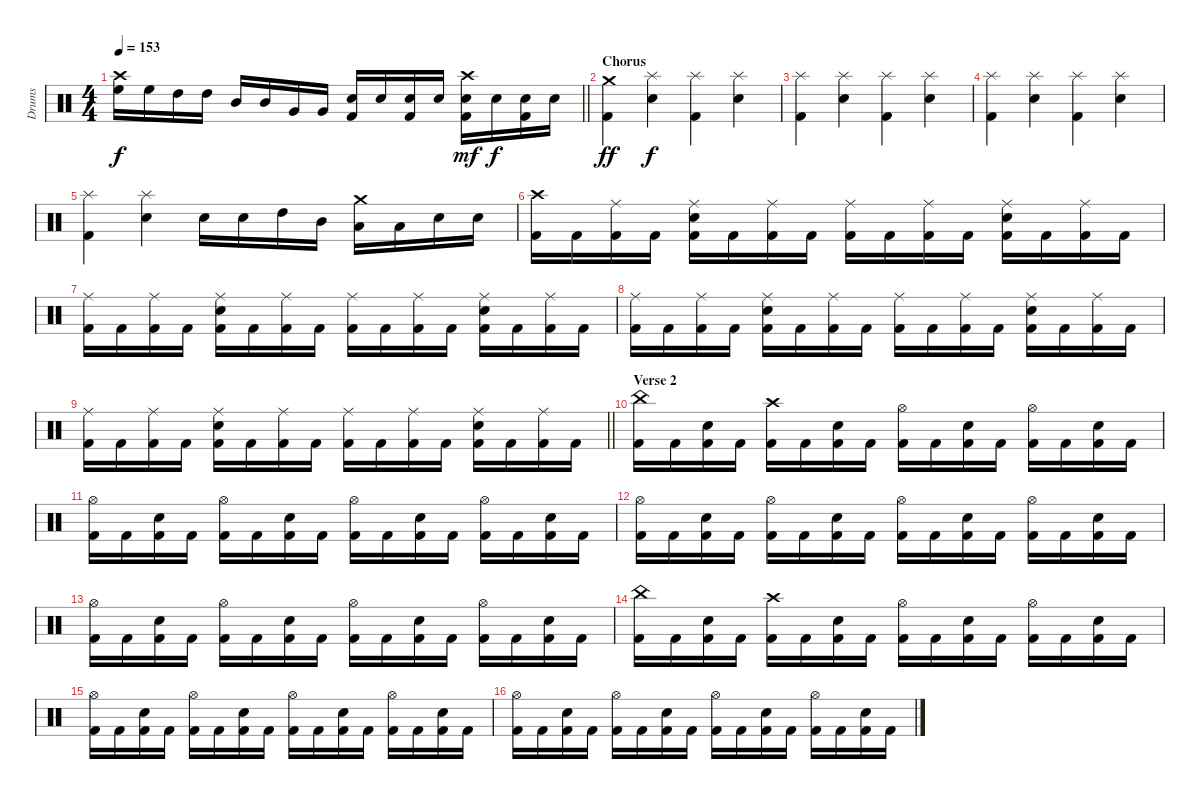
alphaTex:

\track ("Drums" "Drums") {instrument percussion}
\staff {score}
\articulation defaults
\ts (4 4)
\tempo 153
\clef neutral
\barLineRight lightlight
\ks c
("Crash high (hit)" "High Floor Tom (hit)").16{dy f} "High Floor Tom (hit)".16 "High Tom (hit)".16 "High Tom (hit)".16 "Mid Tom (hit)".16 "Mid Tom (hit)".16 "Very Low Tom (hit)".16 "Very Low Tom (hit)".16 ("Electric Snare (hit)" "Kick (hit) 2").16 "Electric Snare (hit)".16 ("Electric Snare (hit)" "Kick (hit) 2").16 "Electric Snare (hit)".16 ("Crash high (hit)" "Electric Snare (hit)" "Kick (hit) 2").16{dy mf} "Electric Snare (hit)".16{dy f} ("Electric Snare (hit)" "Kick (hit) 2").16 "Electric Snare (hit)".16 |
\section ("" "Chorus")
("Crash medium (hit)" "Kick (hit) 2").4{dy ff} ("Splash (hit)" "Electric Snare (hit)").4{dy f} ("Splash (hit)" "Kick (hit) 2").4 ("Splash (hit)" "Electric Snare (hit)").4 |
("Splash (hit)" "Kick (hit) 2").4 ("Splash (hit)" "Electric Snare (hit)").4 ("Splash (hit)" "Kick (hit) 2").4 ("Splash (hit)" "Electric Snare (hit)").4 |
("Splash (hit)" "Kick (hit) 2").4 ("Splash (hit)" "Electric Snare (hit)").4 ("Splash (hit)" "Kick (hit) 2").4 ("Splash (hit)" "Electric Snare (hit)").4 |
("Splash (hit)" "Kick (hit) 2").4 ("Splash (hit)" "Electric Snare (hit)").4 "Electric Snare (hit)".16 "Electric Snare (hit)".16 "High Tom (hit)".16 "Mid Tom (hit)".16 ("Crash medium (hit)" "Low Tom (hit)").16 "Low Floor Tom (hit)".16 "Electric Snare (hit)".16 "Electric Snare (hit)".16 |
("Crash high (hit)" "Kick (hit) 2").16 "Kick (hit) 2".16 ("Ride (middle)" "Kick (hit) 2").16 "Kick (hit) 2".16 ("Ride (middle)" "Electric Snare (hit)" "Kick (hit) 2").16 "Kick (hit) 2".16 ("Ride (middle)" "Kick (hit) 2").16 "Kick (hit) 2".16 ("Ride (middle)" "Kick (hit) 2").16 "Kick (hit) 2".16 ("Ride (middle)" "Kick (hit) 2").16 "Kick (hit) 2".16 ("Ride (middle)" "Electric Snare (hit)" "Kick (hit) 2").16 "Kick (hit) 2".16 ("Ride (middle)" "Kick (hit) 2").16 "Kick (hit) 2".16 |
("Ride (middle)" "Kick (hit) 2").16 "Kick (hit) 2".16 ("Ride (middle)" "Kick (hit) 2").16 "Kick (hit) 2".16 ("Ride (middle)" "Electric Snare (hit)" "Kick (hit) 2").16 "Kick (hit) 2".16 ("Ride (middle)" "Kick (hit) 2").16 "Kick (hit) 2".16 ("Ride (middle)" "Kick (hit) 2").16 "Kick (hit) 2".16 ("Ride (middle)" "Kick (hit) 2").16 "Kick (hit) 2".16 ("Ride (middle)" "Electric Snare (hit)" "Kick (hit) 2").16 "Kick (hit) 2".16 ("Ride (middle)" "Kick (hit) 2").16 "Kick (hit) 2".16 |
("Ride (middle)" "Kick (hit) 2").16 "Kick (hit) 2".16 ("Ride (middle)" "Kick (hit) 2").16 "Kick (hit) 2".16 ("Ride (middle)" "Electric Snare (hit)" "Kick (hit) 2").16 "Kick (hit) 2".16 ("Ride (middle)" "Kick (hit) 2").16 "Kick (hit) 2".16 ("Ride (middle)" "Kick (hit) 2").16 "Kick (hit) 2".16 ("Ride (middle)" "Kick (hit) 2").16 "Kick (hit) 2".16 ("Ride (middle)" "Electric Snare (hit)" "Kick (hit) 2").16 "Kick (hit) 2".16 ("Ride (middle)" "Kick (hit) 2").16 "Kick (hit) 2".16 |
\barLineRight lightlight
("Ride (middle)" "Kick (hit) 2").16 "Kick (hit) 2".16 ("Ride (middle)" "Kick (hit) 2").16 "Kick (hit) 2".16 ("Ride (middle)" "Electric Snare (hit)" "Kick (hit) 2").16 "Kick (hit) 2".16 ("Ride (middle)" "Kick (hit) 2").16 "Kick (hit) 2".16 ("Ride (middle)" "Kick (hit) 2").16 "Kick (hit) 2".16 ("Ride (middle)" "Kick (hit) 2").16 "Kick (hit) 2".16 ("Ride (middle)" "Electric Snare (hit)" "Kick (hit) 2").16 "Kick (hit) 2".16 ("Ride (middle)" "Kick (hit) 2").16 "Kick (hit) 2".16 |
\section ("" "Verse 2")
("China (hit)" "Kick (hit) 2").16{volume 13} "Kick (hit) 2".16 ("Electric Snare (hit)" "Kick (hit) 2").16 "Kick (hit) 2".16 ("Crash high (hit)" "Kick (hit) 2").16 "Kick (hit) 2".16 ("Electric Snare (hit)" "Kick (hit) 2").16 "Kick (hit) 2".16 ("Hi-Hat (open)" "Kick (hit) 2").16 "Kick (hit) 2".16 ("Electric Snare (hit)" "Kick (hit) 2").16 "Kick (hit) 2".16 ("Hi-Hat (open)" "Kick (hit) 2").16 "Kick (hit) 2".16 ("Electric Snare (hit)" "Kick (hit) 2").16 "Kick (hit) 2".16 |
("Hi-Hat (open)" "Kick (hit) 2").16 "Kick (hit) 2".16 ("Electric Snare (hit)" "Kick (hit) 2").16 "Kick (hit) 2".16 ("Hi-Hat (open)" "Kick (hit) 2").16 "Kick (hit) 2".16 ("Electric Snare (hit)" "Kick (hit) 2").16 "Kick (hit) 2".16 ("Hi-Hat (open)" "Kick (hit) 2").16 "Kick (hit) 2".16 ("Electric Snare (hit)" "Kick (hit) 2").16 "Kick (hit) 2".16 ("Hi-Hat (open)" "Kick (hit) 2").16 "Kick (hit) 2".16 ("Electric Snare (hit)" "Kick (hit) 2").16 "Kick (hit) 2".16 |
("Hi-Hat (open)" "Kick (hit) 2").16 "Kick (hit) 2".16 ("Electric Snare (hit)" "Kick (hit) 2").16 "Kick (hit) 2".16 ("Hi-Hat (open)" "Kick (hit) 2").16 "Kick (hit) 2".16 ("Electric Snare (hit)" "Kick (hit) 2").16 "Kick (hit) 2".16 ("Hi-Hat (open)" "Kick (hit) 2").16 "Kick (hit) 2".16 ("Electric Snare (hit)" "Kick (hit) 2").16 "Kick (hit) 2".16 ("Hi-Hat (open)" "Kick (hit) 2").16 "Kick (hit) 2".16 ("Electric Snare (hit)" "Kick (hit) 2").16 "Kick (hit) 2".16 |
("Hi-Hat (open)" "Kick (hit) 2").16 "Kick (hit) 2".16 ("Electric Snare (hit)" "Kick (hit) 2").16 "Kick (hit) 2".16 ("Hi-Hat (open)" "Kick (hit) 2").16 "Kick (hit) 2".16 ("Electric Snare (hit)" "Kick (hit) 2").16 "Kick (hit) 2".16 ("Hi-Hat (open)" "Kick (hit) 2").16 "Kick (hit) 2".16 ("Electric Snare (hit)" "Kick (hit) 2").16 "Kick (hit) 2".16 ("Hi-Hat (open)" "Kick (hit) 2").16 "Kick (hit) 2".16 ("Electric Snare (hit)" "Kick (hit) 2").16 "Kick (hit) 2".16 |
("China (hit)" "Kick (hit) 2").16 "Kick (hit) 2".16 ("Electric Snare (hit)" "Kick (hit) 2").16 "Kick (hit) 2".16 ("Crash high (hit)" "Kick (hit) 2").16 "Kick (hit) 2".16 ("Electric Snare (hit)" "Kick (hit) 2").16 "Kick (hit) 2".16 ("Hi-Hat (open)" "Kick (hit) 2").16 "Kick (hit) 2".16 ("Electric Snare (hit)" "Kick (hit) 2").16 "Kick (hit) 2".16 ("Hi-Hat (open)" "Kick (hit) 2").16 "Kick (hit) 2".16 ("Electric Snare (hit)" "Kick (hit) 2").16 "Kick (hit) 2".16 |
("Hi-Hat (open)" "Kick (hit) 2").16 "Kick (hit) 2".16 ("Electric Snare (hit)" "Kick (hit) 2").16 "Kick (hit) 2".16 ("Hi-Hat (open)" "Kick (hit) 2").16 "Kick (hit) 2".16 ("Electric Snare (hit)" "Kick (hit) 2").16 "Kick (hit) 2".16 ("Hi-Hat (open)" "Kick (hit) 2").16 "Kick (hit) 2".16 ("Electric Snare (hit)" "Kick (hit) 2").16 "Kick (hit) 2".16 ("Hi-Hat (open)" "Kick (hit) 2").16 "Kick (hit) 2".16 ("Electric Snare (hit)" "Kick (hit) 2").16 "Kick (hit) 2".16 |
("Hi-Hat (open)" "Kick (hit) 2").16 "Kick (hit) 2".16 ("Electric Snare (hit)" "Kick (hit) 2").16 "Kick (hit) 2".16 ("Hi-Hat (open)" "Kick (hit) 2").16 "Kick (hit) 2".16 ("Electric Snare (hit)" "Kick (hit) 2").16 "Kick (hit) 2".16 ("Hi-Hat (open)" "Kick (hit) 2").16 "Kick (hit) 2".16 ("Electric Snare (hit)" "Kick (hit) 2").16 "Kick (hit) 2".16 ("Hi-Hat (open)" "Kick (hit) 2").16 "Kick (hit) 2".16 ("Electric Snare (hit)" "Kick (hit) 2").16 "Kick (hit) 2".16
